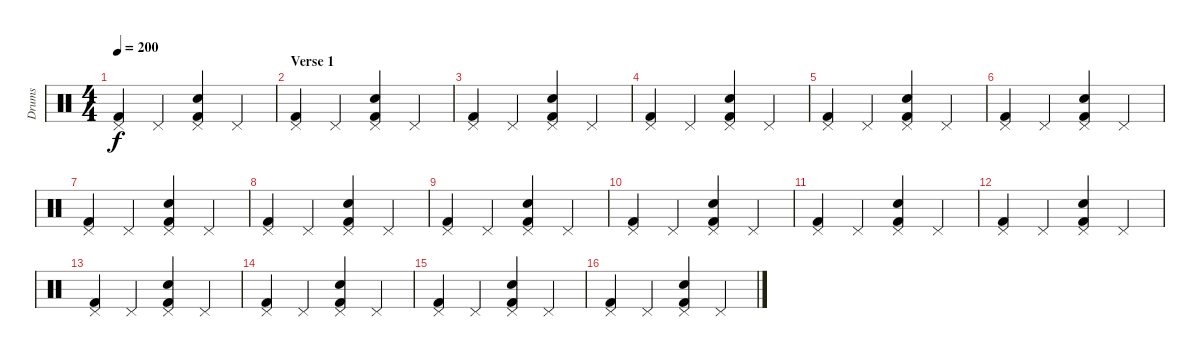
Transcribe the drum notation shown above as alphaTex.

\track ("Drums" "Drums") {instrument percussion}
\staff {score}
\articulation defaults
\ts (4 4)
\tempo 200
\clef neutral
\ks c
("Pedal Hi-Hat (hit)" "Kick (hit) 2").4{dy f} "Pedal Hi-Hat (hit)".4 ("Pedal Hi-Hat (hit)" "Kick (hit) 2" "Snare (hit) 2").4 "Pedal Hi-Hat (hit)".4 |
\section ("" "Verse 1")
("Pedal Hi-Hat (hit)" "Kick (hit) 2").4 "Pedal Hi-Hat (hit)".4 ("Pedal Hi-Hat (hit)" "Kick (hit) 2" "Snare (hit) 2").4 "Pedal Hi-Hat (hit)".4 |
("Pedal Hi-Hat (hit)" "Kick (hit) 2").4 "Pedal Hi-Hat (hit)".4 ("Pedal Hi-Hat (hit)" "Kick (hit) 2" "Snare (hit) 2").4 "Pedal Hi-Hat (hit)".4 |
("Pedal Hi-Hat (hit)" "Kick (hit) 2").4 "Pedal Hi-Hat (hit)".4 ("Pedal Hi-Hat (hit)" "Kick (hit) 2" "Snare (hit) 2").4 "Pedal Hi-Hat (hit)".4 |
("Pedal Hi-Hat (hit)" "Kick (hit) 2").4 "Pedal Hi-Hat (hit)".4 ("Pedal Hi-Hat (hit)" "Kick (hit) 2" "Snare (hit) 2").4 "Pedal Hi-Hat (hit)".4 |
("Pedal Hi-Hat (hit)" "Kick (hit) 2").4 "Pedal Hi-Hat (hit)".4 ("Pedal Hi-Hat (hit)" "Kick (hit) 2" "Snare (hit) 2").4 "Pedal Hi-Hat (hit)".4 |
("Pedal Hi-Hat (hit)" "Kick (hit) 2").4 "Pedal Hi-Hat (hit)".4 ("Pedal Hi-Hat (hit)" "Kick (hit) 2" "Snare (hit) 2").4 "Pedal Hi-Hat (hit)".4 |
("Pedal Hi-Hat (hit)" "Kick (hit) 2").4 "Pedal Hi-Hat (hit)".4 ("Pedal Hi-Hat (hit)" "Kick (hit) 2" "Snare (hit) 2").4 "Pedal Hi-Hat (hit)".4 |
("Pedal Hi-Hat (hit)" "Kick (hit) 2").4 "Pedal Hi-Hat (hit)".4 ("Pedal Hi-Hat (hit)" "Kick (hit) 2" "Snare (hit) 2").4 "Pedal Hi-Hat (hit)".4 |
("Pedal Hi-Hat (hit)" "Kick (hit) 2").4 "Pedal Hi-Hat (hit)".4 ("Pedal Hi-Hat (hit)" "Kick (hit) 2" "Snare (hit) 2").4 "Pedal Hi-Hat (hit)".4 |
("Pedal Hi-Hat (hit)" "Kick (hit) 2").4 "Pedal Hi-Hat (hit)".4 ("Pedal Hi-Hat (hit)" "Kick (hit) 2" "Snare (hit) 2").4 "Pedal Hi-Hat (hit)".4 |
("Pedal Hi-Hat (hit)" "Kick (hit) 2").4 "Pedal Hi-Hat (hit)".4 ("Pedal Hi-Hat (hit)" "Kick (hit) 2" "Snare (hit) 2").4 "Pedal Hi-Hat (hit)".4 |
("Pedal Hi-Hat (hit)" "Kick (hit) 2").4 "Pedal Hi-Hat (hit)".4 ("Pedal Hi-Hat (hit)" "Kick (hit) 2" "Snare (hit) 2").4 "Pedal Hi-Hat (hit)".4 |
("Pedal Hi-Hat (hit)" "Kick (hit) 2").4 "Pedal Hi-Hat (hit)".4 ("Pedal Hi-Hat (hit)" "Kick (hit) 2" "Snare (hit) 2").4 "Pedal Hi-Hat (hit)".4 |
("Pedal Hi-Hat (hit)" "Kick (hit) 2").4 "Pedal Hi-Hat (hit)".4 ("Pedal Hi-Hat (hit)" "Kick (hit) 2" "Snare (hit) 2").4 "Pedal Hi-Hat (hit)".4 |
("Pedal Hi-Hat (hit)" "Kick (hit) 2").4 "Pedal Hi-Hat (hit)".4 ("Pedal Hi-Hat (hit)" "Kick (hit) 2" "Snare (hit) 2").4 "Pedal Hi-Hat (hit)".4
